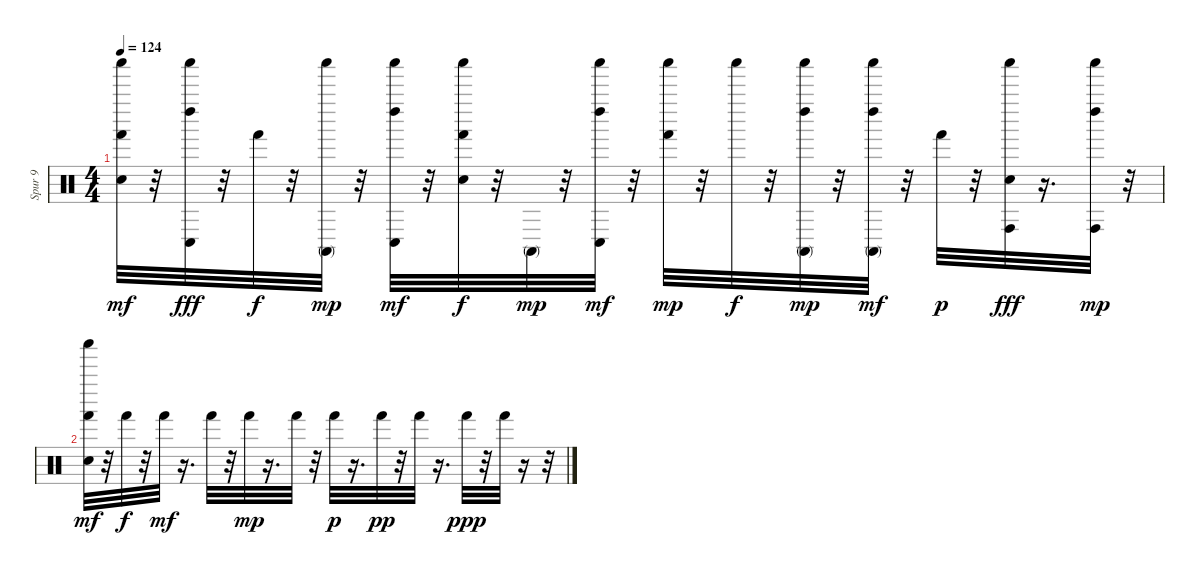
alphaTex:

\track ("Spur 9" "Spur 9") {instrument percussion}
\staff {score}
\articulation defaults
\ts (4 4)
\tempo 124
\clef neutral
\ks c
("Electric Snare (hit)" "Hand (hit)" "Shaker (hit)").32{dy mf} r.32 ("Conga low (hit)" "Left Maraca (hit)" "Shaker (hit)").32{dy fff} r.32 "Hand (hit)".32{dy f} r.32 ("Conga high (mute)" "Shaker (hit)").32{dy mp} r.32 ("Conga low (hit)" "Left Maraca (hit)" "Shaker (hit)").32{dy mf} r.32 ("Electric Snare (hit)" "Hand (hit)" "Shaker (hit)").32{dy f} r.32 "Conga high (mute)".32{dy mp} r.32 ("Conga low (hit)" "Left Maraca (hit)" "Shaker (hit)").32{dy mf} r.32 ("Hand (hit)" "Shaker (hit)").32{dy mp} r.32 "Shaker (hit)".32{dy f} r.32 ("Conga high (mute)" "Left Maraca (hit)" "Shaker (hit)").32{dy mp} r.32 ("Conga high (mute)" "Left Maraca (hit)" "Shaker (hit)").32{dy mf} r.32 "Hand (hit)".32{dy p} r.32 ("Electric Snare (hit)" "Conga high (hit)" "Shaker (hit)").32{dy fff} r.16{d} ("Conga high (hit)" "Left Maraca (hit)" "Shaker (hit)").32{dy mp} r.32 |
("Electric Snare (hit)" "Hand (hit)" "Shaker (hit)").32{dy mf} r.32 "Hand (hit)".32{dy f} r.32 "Hand (hit)".32{dy mf} r.16{d} "Hand (hit)".32 r.32 "Hand (hit)".32{dy mp} r.16{d} "Hand (hit)".32 r.32 "Hand (hit)".32{dy p} r.16{d} "Hand (hit)".32{dy pp} r.32 "Hand (hit)".32 r.16{d} "Hand (hit)".32{dy ppp} r.32 "Hand (hit)".32 r.16 r.32
